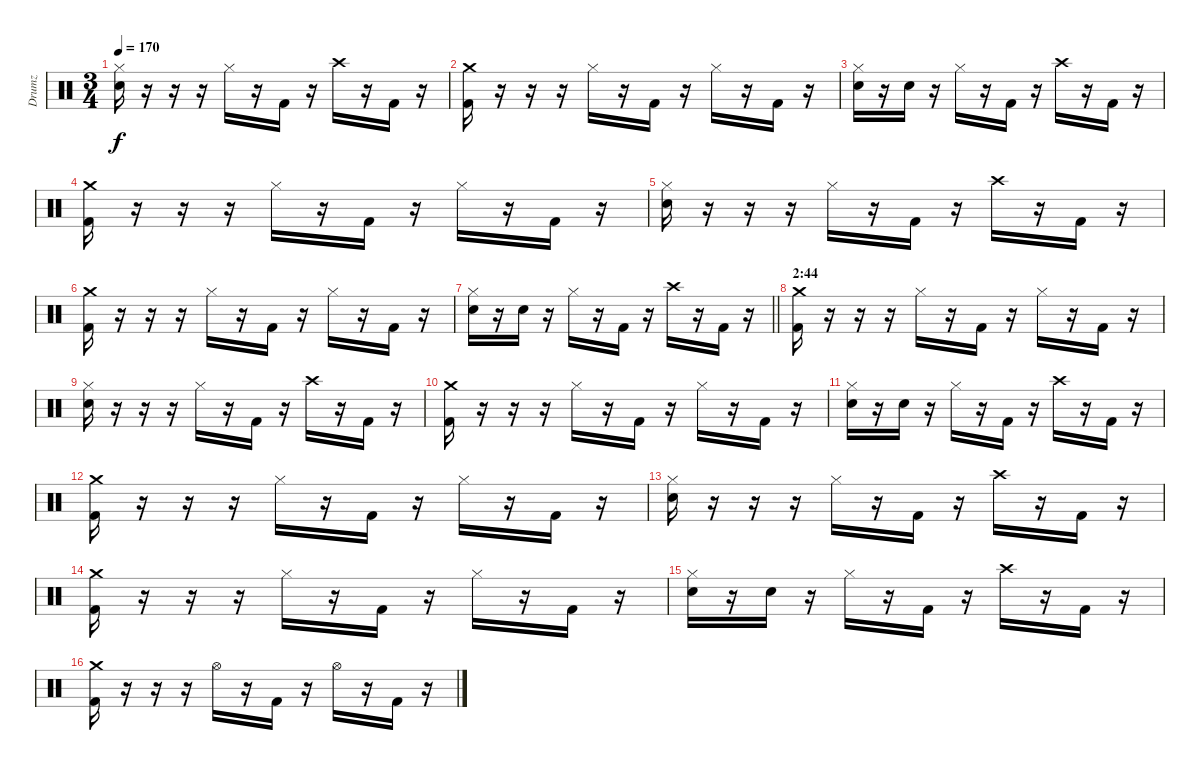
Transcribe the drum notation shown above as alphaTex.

\track ("Drumz" "Drumz") {instrument percussion}
\staff {score}
\articulation defaults
\ts (3 4)
\tempo 170
\clef neutral
\ks c
("Hi-Hat (closed)" "Electric Snare (hit)").16{dy f} r.16 r.16 r.16 "Hi-Hat (closed)".16 r.16 "Kick (hit) 2".16 r.16 "Crash high (hit)".16 r.16 "Kick (hit) 2".16 r.16 |
("Crash medium (hit)" "Kick (hit) 2").16 r.16 r.16 r.16 "Hi-Hat (closed)".16 r.16 "Kick (hit) 2".16 r.16 "Hi-Hat (closed)".16 r.16 "Kick (hit) 2".16 r.16 |
("Hi-Hat (closed)" "Electric Snare (hit)").16 r.16 "Electric Snare (hit)".16 r.16 "Hi-Hat (closed)".16 r.16 "Kick (hit) 2".16 r.16 "Crash high (hit)".16 r.16 "Kick (hit) 2".16 r.16 |
("Crash medium (hit)" "Kick (hit) 2").16 r.16 r.16 r.16 "Hi-Hat (closed)".16 r.16 "Kick (hit) 2".16 r.16 "Hi-Hat (closed)".16 r.16 "Kick (hit) 2".16 r.16 |
("Hi-Hat (closed)" "Electric Snare (hit)").16 r.16 r.16 r.16 "Hi-Hat (closed)".16 r.16 "Kick (hit) 2".16 r.16 "Crash high (hit)".16 r.16 "Kick (hit) 2".16 r.16 |
("Crash medium (hit)" "Kick (hit) 2").16 r.16 r.16 r.16 "Hi-Hat (closed)".16 r.16 "Kick (hit) 2".16 r.16 "Hi-Hat (closed)".16 r.16 "Kick (hit) 2".16 r.16 |
\barLineRight lightlight
("Hi-Hat (closed)" "Electric Snare (hit)").16 r.16 "Electric Snare (hit)".16 r.16 "Hi-Hat (closed)".16 r.16 "Kick (hit) 2".16 r.16 "Crash high (hit)".16 r.16 "Kick (hit) 2".16 r.16 |
\section ("" "2:44")
("Crash medium (hit)" "Kick (hit) 2").16 r.16 r.16 r.16 "Hi-Hat (closed)".16 r.16 "Kick (hit) 2".16 r.16 "Hi-Hat (closed)".16 r.16 "Kick (hit) 2".16 r.16 |
("Hi-Hat (closed)" "Electric Snare (hit)").16 r.16 r.16 r.16 "Hi-Hat (closed)".16 r.16 "Kick (hit) 2".16 r.16 "Crash high (hit)".16 r.16 "Kick (hit) 2".16 r.16 |
("Crash medium (hit)" "Kick (hit) 2").16 r.16 r.16 r.16 "Hi-Hat (closed)".16 r.16 "Kick (hit) 2".16 r.16 "Hi-Hat (closed)".16 r.16 "Kick (hit) 2".16 r.16 |
("Hi-Hat (closed)" "Electric Snare (hit)").16 r.16 "Electric Snare (hit)".16 r.16 "Hi-Hat (closed)".16 r.16 "Kick (hit) 2".16 r.16 "Crash high (hit)".16 r.16 "Kick (hit) 2".16 r.16 |
("Crash medium (hit)" "Kick (hit) 2").16 r.16 r.16 r.16 "Hi-Hat (closed)".16 r.16 "Kick (hit) 2".16 r.16 "Hi-Hat (closed)".16 r.16 "Kick (hit) 2".16 r.16 |
("Hi-Hat (closed)" "Electric Snare (hit)").16 r.16 r.16 r.16 "Hi-Hat (closed)".16 r.16 "Kick (hit) 2".16 r.16 "Crash high (hit)".16 r.16 "Kick (hit) 2".16 r.16 |
("Crash medium (hit)" "Kick (hit) 2").16 r.16 r.16 r.16 "Hi-Hat (closed)".16 r.16 "Kick (hit) 2".16 r.16 "Hi-Hat (closed)".16 r.16 "Kick (hit) 2".16 r.16 |
("Hi-Hat (closed)" "Electric Snare (hit)").16 r.16 "Electric Snare (hit)".16 r.16 "Hi-Hat (closed)".16 r.16 "Kick (hit) 2".16 r.16 "Crash high (hit)".16 r.16 "Kick (hit) 2".16 r.16 |
("Crash medium (hit)" "Kick (hit) 2").16 r.16 r.16 r.16 "Hi-Hat (open)".16 r.16 "Kick (hit) 2".16 r.16 "Hi-Hat (open)".16 r.16 "Kick (hit) 2".16 r.16
